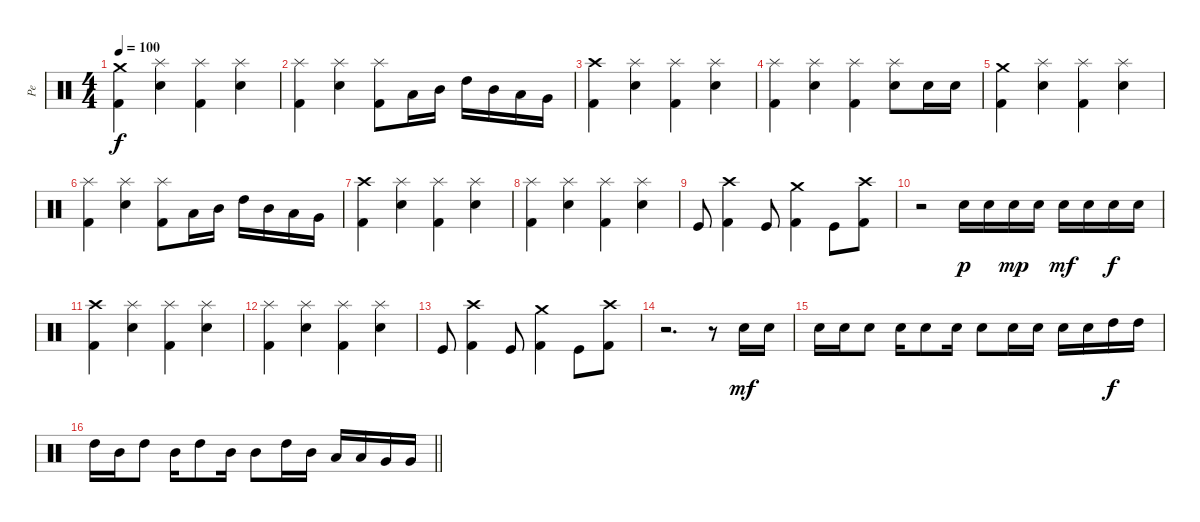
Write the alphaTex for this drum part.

\track ("Pe" "Pe") {instrument percussion}
\staff {score}
\articulation defaults
\ts (4 4)
\tempo 100
\clef neutral
\ks c
("Kick (hit) 2" "Crash medium (hit)").4{dy f} ("Electric Snare (hit)" "Splash (hit)").4 ("Kick (hit) 2" "Splash (hit)").4 ("Electric Snare (hit)" "Splash (hit)").4 |
("Kick (hit) 2" "Splash (hit)").4 ("Electric Snare (hit)" "Splash (hit)").4 ("Kick (hit) 2" "Splash (hit)").8 "Low Tom (hit)".16 "Mid Tom (hit)".16 "High Tom (hit)".16 "Mid Tom (hit)".16 "Low Tom (hit)".16 "Very Low Tom (hit)".16 |
("Kick (hit) 2" "Crash high (hit)").4 ("Electric Snare (hit)" "Splash (hit)").4 ("Kick (hit) 2" "Splash (hit)").4 ("Electric Snare (hit)" "Splash (hit)").4 |
("Kick (hit) 2" "Splash (hit)").4 ("Electric Snare (hit)" "Splash (hit)").4 ("Kick (hit) 2" "Splash (hit)").4 ("Electric Snare (hit)" "Splash (hit)").8 "Electric Snare (hit)".16 "Electric Snare (hit)".16 |
("Kick (hit) 2" "Crash medium (hit)").4 ("Electric Snare (hit)" "Splash (hit)").4 ("Kick (hit) 2" "Splash (hit)").4 ("Electric Snare (hit)" "Splash (hit)").4 |
("Kick (hit) 2" "Splash (hit)").4 ("Electric Snare (hit)" "Splash (hit)").4 ("Kick (hit) 2" "Splash (hit)").8 "Low Tom (hit)".16 "Mid Tom (hit)".16 "High Tom (hit)".16 "Mid Tom (hit)".16 "Low Tom (hit)".16 "Very Low Tom (hit)".16 |
("Kick (hit) 2" "Crash high (hit)").4 ("Electric Snare (hit)" "Splash (hit)").4 ("Kick (hit) 2" "Splash (hit)").4 ("Electric Snare (hit)" "Splash (hit)").4 |
("Kick (hit) 2" "Splash (hit)").4 ("Electric Snare (hit)" "Splash (hit)").4 ("Kick (hit) 2" "Splash (hit)").4 ("Electric Snare (hit)" "Splash (hit)").4 |
"Kick (hit)".8 ("Kick (hit) 2" "Crash high (hit)").4 "Kick (hit)".8 ("Kick (hit) 2" "Crash medium (hit)").4 "Kick (hit)".8 ("Kick (hit) 2" "Crash high (hit)").8 |
r.2 "Electric Snare (hit)".16{dy p} "Electric Snare (hit)".16 "Electric Snare (hit)".16{dy mp} "Electric Snare (hit)".16 "Electric Snare (hit)".16{dy mf} "Electric Snare (hit)".16 "Electric Snare (hit)".16{dy f} "Electric Snare (hit)".16 |
("Kick (hit) 2" "Crash high (hit)").4 ("Electric Snare (hit)" "Splash (hit)").4 ("Kick (hit) 2" "Splash (hit)").4 ("Electric Snare (hit)" "Splash (hit)").4 |
("Kick (hit) 2" "Splash (hit)").4 ("Electric Snare (hit)" "Splash (hit)").4 ("Kick (hit) 2" "Splash (hit)").4 ("Electric Snare (hit)" "Splash (hit)").4 |
"Kick (hit)".8 ("Kick (hit) 2" "Crash high (hit)").4 "Kick (hit)".8 ("Kick (hit) 2" "Crash medium (hit)").4 "Kick (hit)".8 ("Kick (hit) 2" "Crash high (hit)").8 |
r.2{d} r.8 "Electric Snare (hit)".16{dy mf} "Electric Snare (hit)".16 |
"Electric Snare (hit)".16 "Electric Snare (hit)".16 "Electric Snare (hit)".8 "Electric Snare (hit)".16 "Electric Snare (hit)".8 "Electric Snare (hit)".16 "Electric Snare (hit)".8 "Electric Snare (hit)".16 "Electric Snare (hit)".16 "Electric Snare (hit)".16 "Electric Snare (hit)".16 "High Tom (hit)".16{dy f} "High Tom (hit)".16 |
\barLineRight lightlight "High Tom (hit)".16 "Mid Tom (hit)".16 "High Tom (hit)".8 "Mid Tom (hit)".16 "High Tom (hit)".8 "Mid Tom (hit)".16 "Mid Tom (hit)".8 "High Tom (hit)".16 "Mid Tom (hit)".16 "Low Tom (hit)".16 "Low Tom (hit)".16 "Very Low Tom (hit)".16 "Very Low Tom (hit)".16
